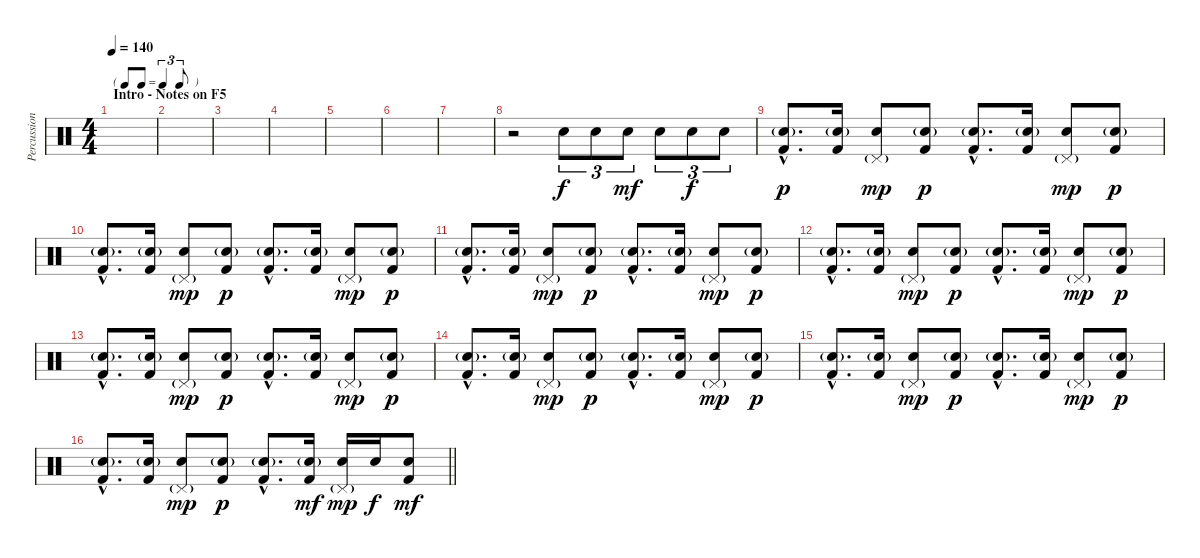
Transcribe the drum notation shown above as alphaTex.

\track ("Percussion" "Percussion") {instrument percussion}
\staff {score}
\articulation defaults
\ts (4 4)
\tf triplet8th
\section ("" "Intro - Notes on F5")
\tempo 140
\clef neutral
\ks c
|
|
|
|
|
|
|
r.2 "Snare (hit) 2".8{tu (3 2)} "Snare (hit) 2".8{tu (3 2)} "Snare (hit) 2".8{tu (3 2) dy mf} "Snare (hit) 2".8{tu (3 2)} "Snare (hit) 2".8{tu (3 2) dy f} "Snare (hit) 2".8{tu (3 2)} |
("Snare (hit) 2"{g hac} "Kick (hit) 2"{hac}).8{d dy p} ("Snare (hit) 2"{g} "Kick (hit) 2").16 ("Pedal Hi-Hat (hit)"{g} "Snare (hit) 2").8{dy mp} ("Snare (hit) 2"{g} "Kick (hit) 2").8{dy p} ("Snare (hit) 2"{g hac} "Kick (hit) 2"{hac}).8{d} ("Snare (hit) 2"{g} "Kick (hit) 2").16 ("Pedal Hi-Hat (hit)"{g} "Snare (hit) 2").8{dy mp} ("Snare (hit) 2"{g} "Kick (hit) 2").8{dy p} |
("Snare (hit) 2"{g hac} "Kick (hit) 2"{hac}).8{d} ("Snare (hit) 2"{g} "Kick (hit) 2").16 ("Pedal Hi-Hat (hit)"{g} "Snare (hit) 2").8{dy mp} ("Snare (hit) 2"{g} "Kick (hit) 2").8{dy p} ("Snare (hit) 2"{g hac} "Kick (hit) 2"{hac}).8{d} ("Snare (hit) 2"{g} "Kick (hit) 2").16 ("Pedal Hi-Hat (hit)"{g} "Snare (hit) 2").8{dy mp} ("Snare (hit) 2"{g} "Kick (hit) 2").8{dy p} |
("Snare (hit) 2"{g hac} "Kick (hit) 2"{hac}).8{d} ("Snare (hit) 2"{g} "Kick (hit) 2").16 ("Pedal Hi-Hat (hit)"{g} "Snare (hit) 2").8{dy mp} ("Snare (hit) 2"{g} "Kick (hit) 2").8{dy p} ("Snare (hit) 2"{g hac} "Kick (hit) 2"{hac}).8{d} ("Snare (hit) 2"{g} "Kick (hit) 2").16 ("Pedal Hi-Hat (hit)"{g} "Snare (hit) 2").8{dy mp} ("Snare (hit) 2"{g} "Kick (hit) 2").8{dy p} |
("Snare (hit) 2"{g hac} "Kick (hit) 2"{hac}).8{d} ("Snare (hit) 2"{g} "Kick (hit) 2").16 ("Pedal Hi-Hat (hit)"{g} "Snare (hit) 2").8{dy mp} ("Snare (hit) 2"{g} "Kick (hit) 2").8{dy p} ("Snare (hit) 2"{g hac} "Kick (hit) 2"{hac}).8{d} ("Snare (hit) 2"{g} "Kick (hit) 2").16 ("Pedal Hi-Hat (hit)"{g} "Snare (hit) 2").8{dy mp} ("Snare (hit) 2"{g} "Kick (hit) 2").8{dy p} |
("Snare (hit) 2"{g hac} "Kick (hit) 2"{hac}).8{d} ("Snare (hit) 2"{g} "Kick (hit) 2").16 ("Pedal Hi-Hat (hit)"{g} "Snare (hit) 2").8{dy mp} ("Snare (hit) 2"{g} "Kick (hit) 2").8{dy p} ("Snare (hit) 2"{g hac} "Kick (hit) 2"{hac}).8{d} ("Snare (hit) 2"{g} "Kick (hit) 2").16 ("Pedal Hi-Hat (hit)"{g} "Snare (hit) 2").8{dy mp} ("Snare (hit) 2"{g} "Kick (hit) 2").8{dy p} |
("Snare (hit) 2"{g hac} "Kick (hit) 2"{hac}).8{d} ("Snare (hit) 2"{g} "Kick (hit) 2").16 ("Pedal Hi-Hat (hit)"{g} "Snare (hit) 2").8{dy mp} ("Snare (hit) 2"{g} "Kick (hit) 2").8{dy p} ("Snare (hit) 2"{g hac} "Kick (hit) 2"{hac}).8{d} ("Snare (hit) 2"{g} "Kick (hit) 2").16 ("Pedal Hi-Hat (hit)"{g} "Snare (hit) 2").8{dy mp} ("Snare (hit) 2"{g} "Kick (hit) 2").8{dy p} |
("Snare (hit) 2"{g hac} "Kick (hit) 2"{hac}).8{d} ("Snare (hit) 2"{g} "Kick (hit) 2").16 ("Pedal Hi-Hat (hit)"{g} "Snare (hit) 2").8{dy mp} ("Snare (hit) 2"{g} "Kick (hit) 2").8{dy p} ("Snare (hit) 2"{g hac} "Kick (hit) 2"{hac}).8{d} ("Snare (hit) 2"{g} "Kick (hit) 2").16 ("Pedal Hi-Hat (hit)"{g} "Snare (hit) 2").8{dy mp} ("Snare (hit) 2"{g} "Kick (hit) 2").8{dy p} |
\barLineRight lightlight
("Snare (hit) 2"{g hac} "Kick (hit) 2"{hac}).8{d} ("Snare (hit) 2"{g} "Kick (hit) 2").16 ("Pedal Hi-Hat (hit)"{g} "Snare (hit) 2").8{dy mp} ("Snare (hit) 2"{g} "Kick (hit) 2").8{dy p} ("Snare (hit) 2"{g hac} "Kick (hit) 2"{hac}).8{d} ("Snare (hit) 2"{g} "Kick (hit) 2").16{dy mf} ("Pedal Hi-Hat (hit)"{g} "Snare (hit) 2").16{dy mp} "Snare (hit) 2".16{dy f} ("Snare (hit) 2" "Kick (hit) 2").8{dy mf}
